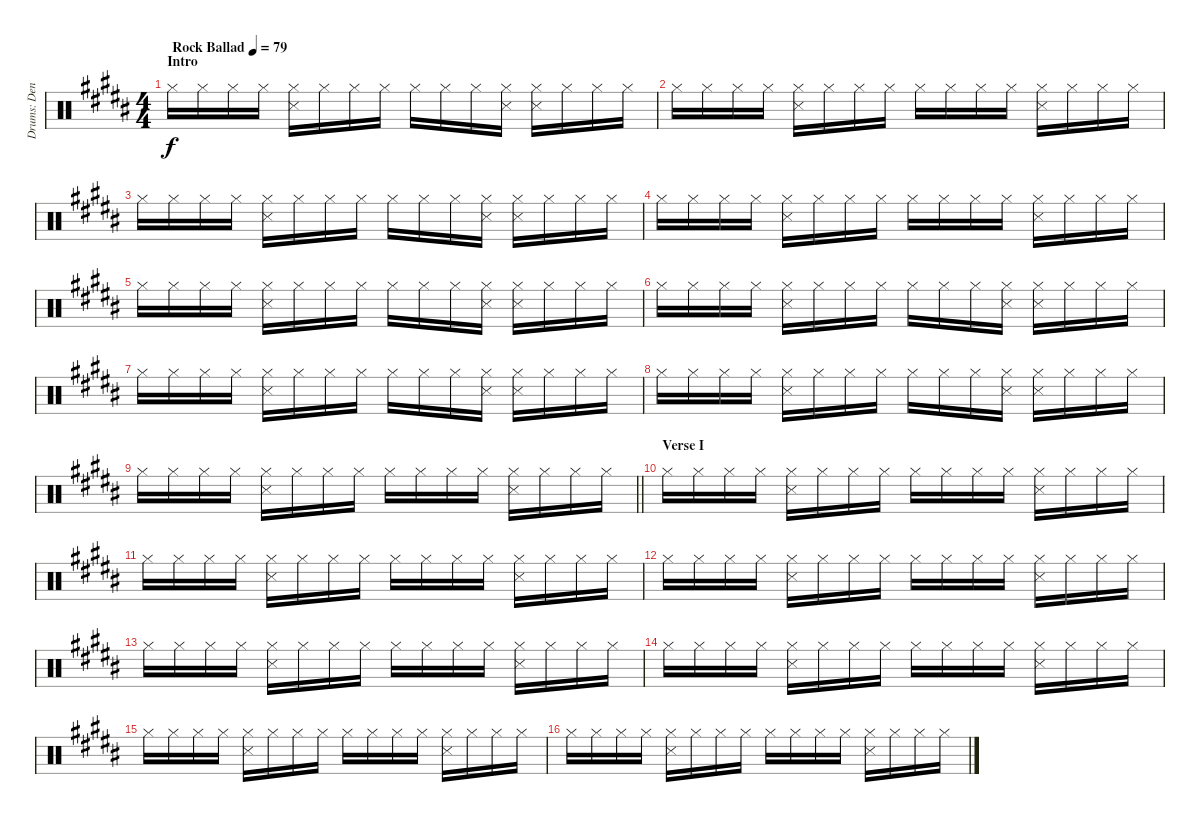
\track ("Drums: Denny" "Drums: Den") {instrument percussion}
\staff {score}
\articulation defaults
\ts (4 4)
\section ("" "Intro")
\tempo (79 "Rock Ballad")
\clef neutral
\ks b "Hi-Hat (closed)".16{dy f} "Hi-Hat (closed)".16 "Hi-Hat (closed)".16 "Hi-Hat (closed)".16
("Hi-Hat (closed)" "Snare (side stick) 3").16 "Hi-Hat (closed)".16 "Hi-Hat (closed)".16 "Hi-Hat (closed)".16 "Hi-Hat (closed)".16 "Hi-Hat (closed)".16 "Hi-Hat (closed)".16 ("Hi-Hat (closed)" "Snare (side stick) 3").16 ("Hi-Hat (closed)" "Snare (side stick) 3").16 "Hi-Hat (closed)".16 "Hi-Hat (closed)".16 "Hi-Hat (closed)".16 |
"Hi-Hat (closed)".16 "Hi-Hat (closed)".16 "Hi-Hat (closed)".16 "Hi-Hat (closed)".16 ("Hi-Hat (closed)" "Snare (side stick) 3").16 "Hi-Hat (closed)".16 "Hi-Hat (closed)".16 "Hi-Hat (closed)".16 "Hi-Hat (closed)".16 "Hi-Hat (closed)".16 "Hi-Hat (closed)".16 "Hi-Hat (closed)".16 ("Hi-Hat (closed)" "Snare (side stick) 3").16 "Hi-Hat (closed)".16 "Hi-Hat (closed)".16 "Hi-Hat (closed)".16 |
"Hi-Hat (closed)".16 "Hi-Hat (closed)".16 "Hi-Hat (closed)".16 "Hi-Hat (closed)".16 ("Hi-Hat (closed)" "Snare (side stick) 3").16 "Hi-Hat (closed)".16 "Hi-Hat (closed)".16 "Hi-Hat (closed)".16 "Hi-Hat (closed)".16 "Hi-Hat (closed)".16 "Hi-Hat (closed)".16 ("Hi-Hat (closed)" "Snare (side stick) 3").16 ("Hi-Hat (closed)" "Snare (side stick) 3").16 "Hi-Hat (closed)".16 "Hi-Hat (closed)".16 "Hi-Hat (closed)".16 |
"Hi-Hat (closed)".16 "Hi-Hat (closed)".16 "Hi-Hat (closed)".16 "Hi-Hat (closed)".16 ("Hi-Hat (closed)" "Snare (side stick) 3").16 "Hi-Hat (closed)".16 "Hi-Hat (closed)".16 "Hi-Hat (closed)".16 "Hi-Hat (closed)".16 "Hi-Hat (closed)".16 "Hi-Hat (closed)".16 "Hi-Hat (closed)".16 ("Hi-Hat (closed)" "Snare (side stick) 3").16 "Hi-Hat (closed)".16 "Hi-Hat (closed)".16 "Hi-Hat (closed)".16 |
"Hi-Hat (closed)".16 "Hi-Hat (closed)".16 "Hi-Hat (closed)".16 "Hi-Hat (closed)".16 ("Hi-Hat (closed)" "Snare (side stick) 3").16 "Hi-Hat (closed)".16 "Hi-Hat (closed)".16 "Hi-Hat (closed)".16 "Hi-Hat (closed)".16 "Hi-Hat (closed)".16 "Hi-Hat (closed)".16 ("Hi-Hat (closed)" "Snare (side stick) 3").16 ("Hi-Hat (closed)" "Snare (side stick) 3").16 "Hi-Hat (closed)".16 "Hi-Hat (closed)".16 "Hi-Hat (closed)".16 |
"Hi-Hat (closed)".16 "Hi-Hat (closed)".16 "Hi-Hat (closed)".16 "Hi-Hat (closed)".16 ("Hi-Hat (closed)" "Snare (side stick) 3").16 "Hi-Hat (closed)".16 "Hi-Hat (closed)".16 "Hi-Hat (closed)".16 "Hi-Hat (closed)".16 "Hi-Hat (closed)".16 "Hi-Hat (closed)".16 ("Hi-Hat (closed)" "Snare (side stick) 3").16 ("Hi-Hat (closed)" "Snare (side stick) 3").16 "Hi-Hat (closed)".16 "Hi-Hat (closed)".16 "Hi-Hat (closed)".16 |
"Hi-Hat (closed)".16 "Hi-Hat (closed)".16 "Hi-Hat (closed)".16 "Hi-Hat (closed)".16 ("Hi-Hat (closed)" "Snare (side stick) 3").16 "Hi-Hat (closed)".16 "Hi-Hat (closed)".16 "Hi-Hat (closed)".16 "Hi-Hat (closed)".16 "Hi-Hat (closed)".16 "Hi-Hat (closed)".16 ("Hi-Hat (closed)" "Snare (side stick) 3").16 ("Hi-Hat (closed)" "Snare (side stick) 3").16 "Hi-Hat (closed)".16 "Hi-Hat (closed)".16 "Hi-Hat (closed)".16 |
"Hi-Hat (closed)".16 "Hi-Hat (closed)".16 "Hi-Hat (closed)".16 "Hi-Hat (closed)".16 ("Hi-Hat (closed)" "Snare (side stick) 3").16 "Hi-Hat (closed)".16 "Hi-Hat (closed)".16 "Hi-Hat (closed)".16 "Hi-Hat (closed)".16 "Hi-Hat (closed)".16 "Hi-Hat (closed)".16 ("Hi-Hat (closed)" "Snare (side stick) 3").16 ("Hi-Hat (closed)" "Snare (side stick) 3").16 "Hi-Hat (closed)".16 "Hi-Hat (closed)".16 "Hi-Hat (closed)".16 |
\barLineRight lightlight "Hi-Hat (closed)".16 "Hi-Hat (closed)".16 "Hi-Hat (closed)".16 "Hi-Hat (closed)".16
("Hi-Hat (closed)" "Snare (side stick) 3").16 "Hi-Hat (closed)".16 "Hi-Hat (closed)".16 "Hi-Hat (closed)".16 "Hi-Hat (closed)".16 "Hi-Hat (closed)".16 "Hi-Hat (closed)".16 "Hi-Hat (closed)".16 ("Hi-Hat (closed)" "Snare (side stick) 3").16 "Hi-Hat (closed)".16 "Hi-Hat (closed)".16 "Hi-Hat (closed)".16 |
\section ("" "Verse I")
"Hi-Hat (closed)".16 "Hi-Hat (closed)".16 "Hi-Hat (closed)".16 "Hi-Hat (closed)".16 ("Hi-Hat (closed)" "Snare (side stick) 3").16 "Hi-Hat (closed)".16 "Hi-Hat (closed)".16 "Hi-Hat (closed)".16 "Hi-Hat (closed)".16 "Hi-Hat (closed)".16 "Hi-Hat (closed)".16 "Hi-Hat (closed)".16 ("Hi-Hat (closed)" "Snare (side stick) 3").16 "Hi-Hat (closed)".16 "Hi-Hat (closed)".16 "Hi-Hat (closed)".16 |
"Hi-Hat (closed)".16 "Hi-Hat (closed)".16 "Hi-Hat (closed)".16 "Hi-Hat (closed)".16 ("Hi-Hat (closed)" "Snare (side stick) 3").16 "Hi-Hat (closed)".16 "Hi-Hat (closed)".16 "Hi-Hat (closed)".16 "Hi-Hat (closed)".16 "Hi-Hat (closed)".16 "Hi-Hat (closed)".16 "Hi-Hat (closed)".16 ("Hi-Hat (closed)" "Snare (side stick) 3").16 "Hi-Hat (closed)".16 "Hi-Hat (closed)".16 "Hi-Hat (closed)".16 |
"Hi-Hat (closed)".16 "Hi-Hat (closed)".16 "Hi-Hat (closed)".16 "Hi-Hat (closed)".16 ("Hi-Hat (closed)" "Snare (side stick) 3").16 "Hi-Hat (closed)".16 "Hi-Hat (closed)".16 "Hi-Hat (closed)".16 "Hi-Hat (closed)".16 "Hi-Hat (closed)".16 "Hi-Hat (closed)".16 "Hi-Hat (closed)".16 ("Hi-Hat (closed)" "Snare (side stick) 3").16 "Hi-Hat (closed)".16 "Hi-Hat (closed)".16 "Hi-Hat (closed)".16 |
"Hi-Hat (closed)".16 "Hi-Hat (closed)".16 "Hi-Hat (closed)".16 "Hi-Hat (closed)".16 ("Hi-Hat (closed)" "Snare (side stick) 3").16 "Hi-Hat (closed)".16 "Hi-Hat (closed)".16 "Hi-Hat (closed)".16 "Hi-Hat (closed)".16 "Hi-Hat (closed)".16 "Hi-Hat (closed)".16 "Hi-Hat (closed)".16 ("Hi-Hat (closed)" "Snare (side stick) 3").16 "Hi-Hat (closed)".16 "Hi-Hat (closed)".16 "Hi-Hat (closed)".16 |
"Hi-Hat (closed)".16 "Hi-Hat (closed)".16 "Hi-Hat (closed)".16 "Hi-Hat (closed)".16 ("Hi-Hat (closed)" "Snare (side stick) 3").16 "Hi-Hat (closed)".16 "Hi-Hat (closed)".16 "Hi-Hat (closed)".16 "Hi-Hat (closed)".16 "Hi-Hat (closed)".16 "Hi-Hat (closed)".16 "Hi-Hat (closed)".16 ("Hi-Hat (closed)" "Snare (side stick) 3").16 "Hi-Hat (closed)".16 "Hi-Hat (closed)".16 "Hi-Hat (closed)".16 |
"Hi-Hat (closed)".16 "Hi-Hat (closed)".16 "Hi-Hat (closed)".16 "Hi-Hat (closed)".16 ("Hi-Hat (closed)" "Snare (side stick) 3").16 "Hi-Hat (closed)".16 "Hi-Hat (closed)".16 "Hi-Hat (closed)".16 "Hi-Hat (closed)".16 "Hi-Hat (closed)".16 "Hi-Hat (closed)".16 "Hi-Hat (closed)".16 ("Hi-Hat (closed)" "Snare (side stick) 3").16 "Hi-Hat (closed)".16 "Hi-Hat (closed)".16 "Hi-Hat (closed)".16 |
"Hi-Hat (closed)".16 "Hi-Hat (closed)".16 "Hi-Hat (closed)".16 "Hi-Hat (closed)".16 ("Hi-Hat (closed)" "Snare (side stick) 3").16 "Hi-Hat (closed)".16 "Hi-Hat (closed)".16 "Hi-Hat (closed)".16 "Hi-Hat (closed)".16 "Hi-Hat (closed)".16 "Hi-Hat (closed)".16 "Hi-Hat (closed)".16 ("Hi-Hat (closed)" "Snare (side stick) 3").16 "Hi-Hat (closed)".16 "Hi-Hat (closed)".16 "Hi-Hat (closed)".16
